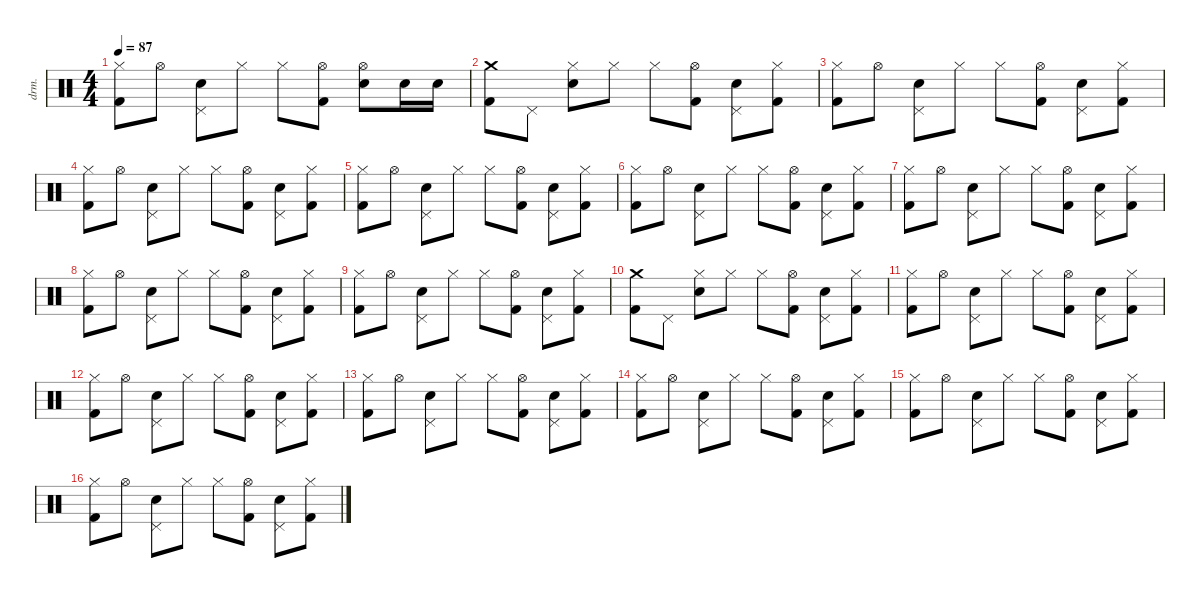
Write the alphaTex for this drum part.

\defaultSystemsLayout 4
\hideDynamics
\bracketExtendMode nobrackets
\otherSystemsTrackNameOrientation horizontal
\track ("Drums" "drm.") {instrument percussion}
\staff {score}
\articulation defaults
\ts (4 4)
\tempo 87
\clef neutral
\ks c
("Hi-Hat (closed)" "Kick (hit) 2").8{dy f} "Hi-Hat (open)".8 ("Pedal Hi-Hat (hit)" "Snare (hit) 2").8 "Hi-Hat (closed)".8 "Hi-Hat (closed)".8 ("Hi-Hat (open)" "Kick (hit) 2").8 ("Hi-Hat (open)" "Snare (hit) 2").8 "Snare (hit) 2".16 "Snare (hit) 2".16 |
("Crash medium (hit)" "Kick (hit) 2").8 "Pedal Hi-Hat (hit)".8 ("Hi-Hat (closed)" "Snare (hit) 2").8 "Hi-Hat (closed)".8 "Hi-Hat (closed)".8 ("Hi-Hat (open)" "Kick (hit) 2").8 ("Pedal Hi-Hat (hit)" "Snare (hit) 2").8 ("Hi-Hat (closed)" "Kick (hit) 2").8 |
("Hi-Hat (closed)" "Kick (hit) 2").8 "Hi-Hat (open)".8 ("Pedal Hi-Hat (hit)" "Snare (hit) 2").8 "Hi-Hat (closed)".8 "Hi-Hat (closed)".8 ("Hi-Hat (open)" "Kick (hit) 2").8 ("Pedal Hi-Hat (hit)" "Snare (hit) 2").8 ("Hi-Hat (closed)" "Kick (hit) 2").8 |
("Hi-Hat (closed)" "Kick (hit) 2").8 "Hi-Hat (open)".8 ("Pedal Hi-Hat (hit)" "Snare (hit) 2").8 "Hi-Hat (closed)".8 "Hi-Hat (closed)".8 ("Hi-Hat (open)" "Kick (hit) 2").8 ("Pedal Hi-Hat (hit)" "Snare (hit) 2").8 ("Hi-Hat (closed)" "Kick (hit) 2").8 |
("Hi-Hat (closed)" "Kick (hit) 2").8 "Hi-Hat (open)".8 ("Pedal Hi-Hat (hit)" "Snare (hit) 2").8 "Hi-Hat (closed)".8 "Hi-Hat (closed)".8 ("Hi-Hat (open)" "Kick (hit) 2").8 ("Pedal Hi-Hat (hit)" "Snare (hit) 2").8 ("Hi-Hat (closed)" "Kick (hit) 2").8 |
("Hi-Hat (closed)" "Kick (hit) 2").8 "Hi-Hat (open)".8 ("Pedal Hi-Hat (hit)" "Snare (hit) 2").8 "Hi-Hat (closed)".8 "Hi-Hat (closed)".8 ("Hi-Hat (open)" "Kick (hit) 2").8 ("Pedal Hi-Hat (hit)" "Snare (hit) 2").8 ("Hi-Hat (closed)" "Kick (hit) 2").8 |
("Hi-Hat (closed)" "Kick (hit) 2").8 "Hi-Hat (open)".8 ("Pedal Hi-Hat (hit)" "Snare (hit) 2").8 "Hi-Hat (closed)".8 "Hi-Hat (closed)".8 ("Hi-Hat (open)" "Kick (hit) 2").8 ("Pedal Hi-Hat (hit)" "Snare (hit) 2").8 ("Hi-Hat (closed)" "Kick (hit) 2").8 |
("Hi-Hat (closed)" "Kick (hit) 2").8 "Hi-Hat (open)".8 ("Pedal Hi-Hat (hit)" "Snare (hit) 2").8 "Hi-Hat (closed)".8 "Hi-Hat (closed)".8 ("Hi-Hat (open)" "Kick (hit) 2").8 ("Pedal Hi-Hat (hit)" "Snare (hit) 2").8 ("Hi-Hat (closed)" "Kick (hit) 2").8 |
("Hi-Hat (closed)" "Kick (hit) 2").8 "Hi-Hat (open)".8 ("Pedal Hi-Hat (hit)" "Snare (hit) 2").8 "Hi-Hat (closed)".8 "Hi-Hat (closed)".8 ("Hi-Hat (open)" "Kick (hit) 2").8 ("Pedal Hi-Hat (hit)" "Snare (hit) 2").8 ("Hi-Hat (closed)" "Kick (hit) 2").8 |
("Crash medium (hit)" "Kick (hit) 2").8 "Pedal Hi-Hat (hit)".8 ("Hi-Hat (closed)" "Snare (hit) 2").8 "Hi-Hat (closed)".8 "Hi-Hat (closed)".8 ("Hi-Hat (open)" "Kick (hit) 2").8 ("Pedal Hi-Hat (hit)" "Snare (hit) 2").8 ("Hi-Hat (closed)" "Kick (hit) 2").8 |
("Hi-Hat (closed)" "Kick (hit) 2").8 "Hi-Hat (open)".8 ("Pedal Hi-Hat (hit)" "Snare (hit) 2").8 "Hi-Hat (closed)".8 "Hi-Hat (closed)".8 ("Hi-Hat (open)" "Kick (hit) 2").8 ("Pedal Hi-Hat (hit)" "Snare (hit) 2").8 ("Hi-Hat (closed)" "Kick (hit) 2").8 |
("Hi-Hat (closed)" "Kick (hit) 2").8 "Hi-Hat (open)".8 ("Pedal Hi-Hat (hit)" "Snare (hit) 2").8 "Hi-Hat (closed)".8 "Hi-Hat (closed)".8 ("Hi-Hat (open)" "Kick (hit) 2").8 ("Pedal Hi-Hat (hit)" "Snare (hit) 2").8 ("Hi-Hat (closed)" "Kick (hit) 2").8 |
("Hi-Hat (closed)" "Kick (hit) 2").8 "Hi-Hat (open)".8 ("Pedal Hi-Hat (hit)" "Snare (hit) 2").8 "Hi-Hat (closed)".8 "Hi-Hat (closed)".8 ("Hi-Hat (open)" "Kick (hit) 2").8 ("Pedal Hi-Hat (hit)" "Snare (hit) 2").8 ("Hi-Hat (closed)" "Kick (hit) 2").8 |
("Hi-Hat (closed)" "Kick (hit) 2").8 "Hi-Hat (open)".8 ("Pedal Hi-Hat (hit)" "Snare (hit) 2").8 "Hi-Hat (closed)".8 "Hi-Hat (closed)".8 ("Hi-Hat (open)" "Kick (hit) 2").8 ("Pedal Hi-Hat (hit)" "Snare (hit) 2").8 ("Hi-Hat (closed)" "Kick (hit) 2").8 |
("Hi-Hat (closed)" "Kick (hit) 2").8 "Hi-Hat (open)".8 ("Pedal Hi-Hat (hit)" "Snare (hit) 2").8 "Hi-Hat (closed)".8 "Hi-Hat (closed)".8 ("Hi-Hat (open)" "Kick (hit) 2").8 ("Pedal Hi-Hat (hit)" "Snare (hit) 2").8 ("Hi-Hat (closed)" "Kick (hit) 2").8 |
("Hi-Hat (closed)" "Kick (hit) 2").8 "Hi-Hat (open)".8 ("Pedal Hi-Hat (hit)" "Snare (hit) 2").8 "Hi-Hat (closed)".8 "Hi-Hat (closed)".8 ("Hi-Hat (open)" "Kick (hit) 2").8 ("Pedal Hi-Hat (hit)" "Snare (hit) 2").8 ("Hi-Hat (closed)" "Kick (hit) 2").8
